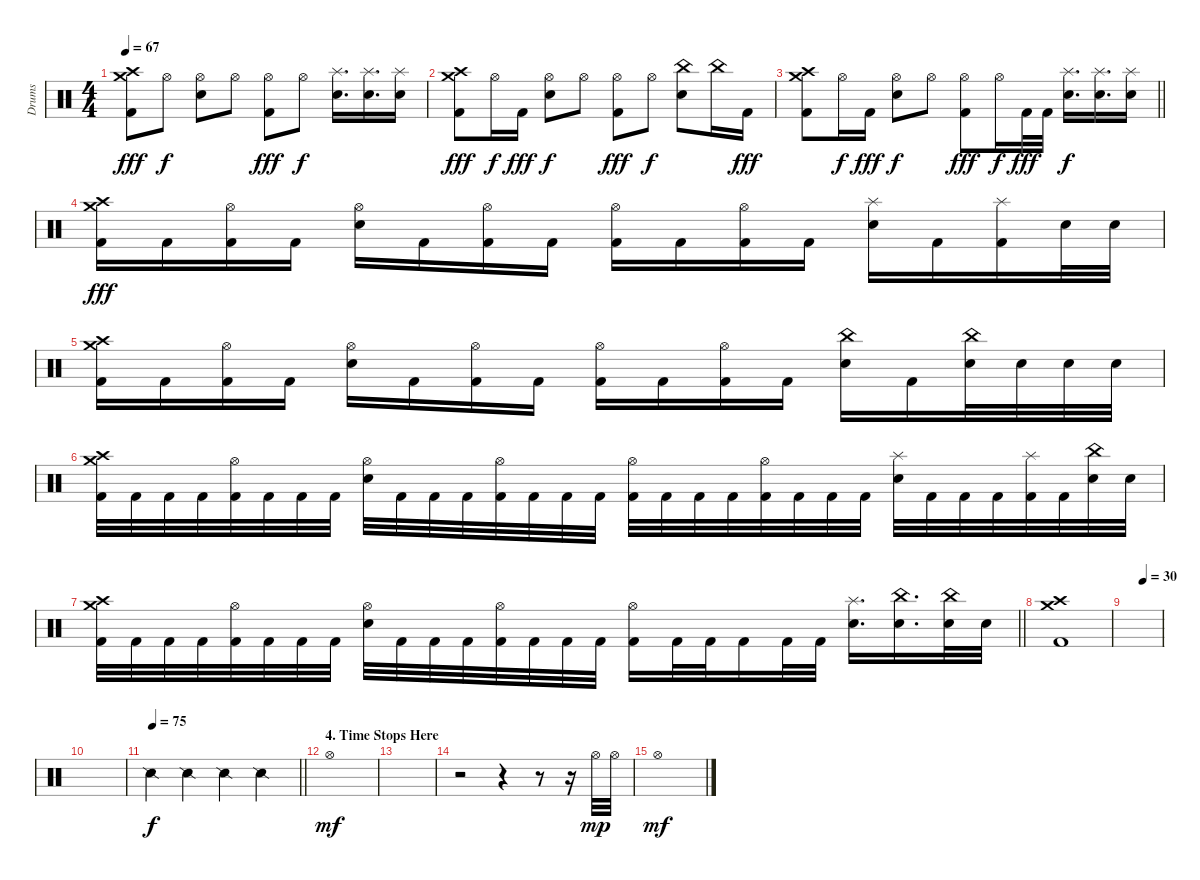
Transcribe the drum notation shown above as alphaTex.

\track ("Drums" "Drums") {instrument percussion}
\staff {score}
\articulation defaults
\ts (4 4)
\tempo 67
\clef neutral
\ks c
("Kick (hit) 2" "Crash high (hit)" "Crash medium (hit)").8{dy fff} "Hi-Hat (open)".8{dy f} ("Electric Snare (hit)" "Hi-Hat (open)").8 "Hi-Hat (open)".8 ("Kick (hit) 2" "Hi-Hat (open)").8{dy fff} "Hi-Hat (open)".8{dy f} ("Electric Snare (hit)" "Splash (hit)").16{d} ("Electric Snare (hit)" "Splash (hit)").16{d} ("Electric Snare (hit)" "Splash (hit)").16 |
("Kick (hit) 2" "Crash high (hit)" "Crash medium (hit)").8{dy fff} "Hi-Hat (open)".16{dy f} "Kick (hit) 2".16{dy fff} ("Electric Snare (hit)" "Hi-Hat (open)").8{dy f} "Hi-Hat (open)".8 ("Kick (hit) 2" "Hi-Hat (open)").8{dy fff} "Hi-Hat (open)".8{dy f} ("Electric Snare (hit)" "China (hit)").8 "China (hit)".16 "Kick (hit) 2".16{dy fff} |
\barLineRight lightlight
("Kick (hit) 2" "Crash high (hit)" "Crash medium (hit)").8 "Hi-Hat (open)".16{dy f} "Kick (hit) 2".16{dy fff} ("Electric Snare (hit)" "Hi-Hat (open)").8{dy f} "Hi-Hat (open)".8 ("Kick (hit) 2" "Hi-Hat (open)").8{dy fff} "Hi-Hat (open)".16{dy f} "Kick (hit) 2".32{dy fff} "Kick (hit) 2".32 ("Electric Snare (hit)" "Splash (hit)").16{d dy f} ("Electric Snare (hit)" "Splash (hit)").16{d} ("Electric Snare (hit)" "Splash (hit)").16 |
("Kick (hit) 2" "Crash high (hit)" "Crash medium (hit)").16{dy fff} "Kick (hit) 2".16 ("Kick (hit) 2" "Hi-Hat (open)").16 "Kick (hit) 2".16 ("Electric Snare (hit)" "Hi-Hat (open)").16 "Kick (hit) 2".16 ("Kick (hit) 2" "Hi-Hat (open)").16 "Kick (hit) 2".16 ("Kick (hit) 2" "Hi-Hat (open)").16 "Kick (hit) 2".16 ("Kick (hit) 2" "Hi-Hat (open)").16 "Kick (hit) 2".16 ("Electric Snare (hit)" "Splash (hit)").16 "Kick (hit) 2".16 ("Kick (hit) 2" "Splash (hit)").16 "Electric Snare (hit)".32 "Electric Snare (hit)".32 |
("Kick (hit) 2" "Crash high (hit)" "Crash medium (hit)").16 "Kick (hit) 2".16 ("Kick (hit) 2" "Hi-Hat (open)").16 "Kick (hit) 2".16 ("Electric Snare (hit)" "Hi-Hat (open)").16 "Kick (hit) 2".16 ("Kick (hit) 2" "Hi-Hat (open)").16 "Kick (hit) 2".16 ("Kick (hit) 2" "Hi-Hat (open)").16 "Kick (hit) 2".16 ("Kick (hit) 2" "Hi-Hat (open)").16 "Kick (hit) 2".16 ("Electric Snare (hit)" "China (hit)").16 "Kick (hit) 2".16 ("Electric Snare (hit)" "China (hit)").32 "Electric Snare (hit)".32 "Electric Snare (hit)".32 "Electric Snare (hit)".32 |
("Kick (hit) 2" "Crash high (hit)" "Crash medium (hit)").32 "Kick (hit) 2".32 "Kick (hit) 2".32 "Kick (hit) 2".32 ("Kick (hit) 2" "Hi-Hat (open)").32 "Kick (hit) 2".32 "Kick (hit) 2".32 "Kick (hit) 2".32 ("Electric Snare (hit)" "Hi-Hat (open)").32 "Kick (hit) 2".32 "Kick (hit) 2".32 "Kick (hit) 2".32 ("Kick (hit) 2" "Hi-Hat (open)").32 "Kick (hit) 2".32 "Kick (hit) 2".32 "Kick (hit) 2".32 ("Kick (hit) 2" "Hi-Hat (open)").32 "Kick (hit) 2".32 "Kick (hit) 2".32 "Kick (hit) 2".32 ("Kick (hit) 2" "Hi-Hat (open)").32 "Kick (hit) 2".32 "Kick (hit) 2".32 "Kick (hit) 2".32 ("Electric Snare (hit)" "Splash (hit)").32 "Kick (hit) 2".32 "Kick (hit) 2".32 "Kick (hit) 2".32 ("Kick (hit) 2" "Splash (hit)").32 "Kick (hit) 2".32 ("Electric Snare (hit)" "China (hit)").32 "Electric Snare (hit)".32 |
\barLineRight lightlight
("Kick (hit) 2" "Crash high (hit)" "Crash medium (hit)").32 "Kick (hit) 2".32 "Kick (hit) 2".32 "Kick (hit) 2".32 ("Kick (hit) 2" "Hi-Hat (open)").32 "Kick (hit) 2".32 "Kick (hit) 2".32 "Kick (hit) 2".32 ("Electric Snare (hit)" "Hi-Hat (open)").32 "Kick (hit) 2".32 "Kick (hit) 2".32 "Kick (hit) 2".32 ("Kick (hit) 2" "Hi-Hat (open)").32 "Kick (hit) 2".32 "Kick (hit) 2".32 "Kick (hit) 2".32 ("Kick (hit) 2" "Hi-Hat (open)").16 "Kick (hit) 2".32 "Kick (hit) 2".32 "Kick (hit) 2".16 "Kick (hit) 2".32 "Kick (hit) 2".32 ("Electric Snare (hit)" "Splash (hit)").16{d} ("Electric Snare (hit)" "China (hit)").16{d} ("Electric Snare (hit)" "China (hit)").32 "Electric Snare (hit)".32 |
("Kick (hit) 2" "Crash high (hit)" "Crash medium (hit)").1 |
\tempo (30 0.5)
|
|
\tempo 75
\barLineRight lightlight "Snare (side stick) 2".4{dy f} "Snare (side stick) 2".4 "Snare (side stick) 2".4 "Snare (side stick) 2".4
|
\section ("" "4. Time Stops Here")
"Hi-Hat (open)".1{dy mf} |
|
r.2 r.4 r.8 r.16 "Hi-Hat (open)".32{dy mp} "Hi-Hat (open)".32 |
"Hi-Hat (open)".1{dy mf}
